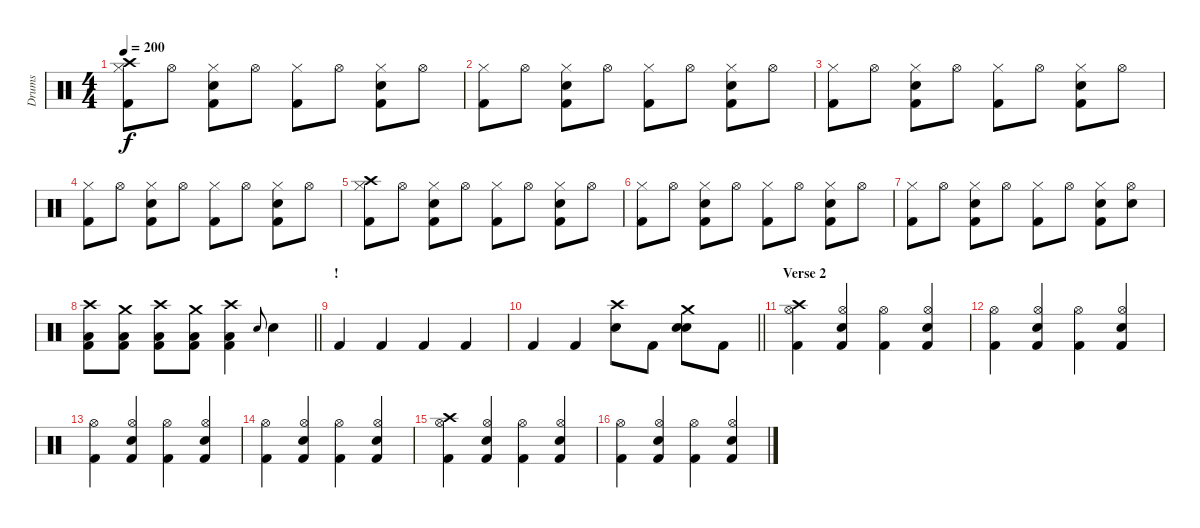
\track ("Drums" "Drums") {instrument percussion}
\staff {score}
\articulation defaults
\ts (4 4)
\tempo 200
\clef neutral
\ks c
("Crash high (hit)" "Hi-Hat (closed)" "Kick (hit) 2").8{dy f} "Hi-Hat (open)".8 ("Hi-Hat (closed)" "Snare (hit) 2" "Kick (hit) 2").8 "Hi-Hat (open)".8 ("Hi-Hat (closed)" "Kick (hit) 2").8 "Hi-Hat (open)".8 ("Hi-Hat (closed)" "Snare (hit) 2" "Kick (hit) 2").8 "Hi-Hat (open)".8 |
("Hi-Hat (closed)" "Kick (hit) 2").8 "Hi-Hat (open)".8 ("Hi-Hat (closed)" "Snare (hit) 2" "Kick (hit) 2").8 "Hi-Hat (open)".8 ("Hi-Hat (closed)" "Kick (hit) 2").8 "Hi-Hat (open)".8 ("Hi-Hat (closed)" "Snare (hit) 2" "Kick (hit) 2").8 "Hi-Hat (open)".8 |
("Hi-Hat (closed)" "Kick (hit) 2").8 "Hi-Hat (open)".8 ("Hi-Hat (closed)" "Snare (hit) 2" "Kick (hit) 2").8 "Hi-Hat (open)".8 ("Hi-Hat (closed)" "Kick (hit) 2").8 "Hi-Hat (open)".8 ("Hi-Hat (closed)" "Snare (hit) 2" "Kick (hit) 2").8 "Hi-Hat (open)".8 |
("Hi-Hat (closed)" "Kick (hit) 2").8 "Hi-Hat (open)".8 ("Hi-Hat (closed)" "Snare (hit) 2" "Kick (hit) 2").8 "Hi-Hat (open)".8 ("Hi-Hat (closed)" "Kick (hit) 2").8 "Hi-Hat (open)".8 ("Hi-Hat (closed)" "Snare (hit) 2" "Kick (hit) 2").8 "Hi-Hat (open)".8 |
("Crash high (hit)" "Hi-Hat (closed)" "Kick (hit) 2").8 "Hi-Hat (open)".8 ("Hi-Hat (closed)" "Snare (hit) 2" "Kick (hit) 2").8 "Hi-Hat (open)".8 ("Hi-Hat (closed)" "Kick (hit) 2").8 "Hi-Hat (open)".8 ("Hi-Hat (closed)" "Snare (hit) 2" "Kick (hit) 2").8 "Hi-Hat (open)".8 |
("Hi-Hat (closed)" "Kick (hit) 2").8 "Hi-Hat (open)".8 ("Hi-Hat (closed)" "Snare (hit) 2" "Kick (hit) 2").8 "Hi-Hat (open)".8 ("Hi-Hat (closed)" "Kick (hit) 2").8 "Hi-Hat (open)".8 ("Hi-Hat (closed)" "Snare (hit) 2" "Kick (hit) 2").8 "Hi-Hat (open)".8 |
("Hi-Hat (closed)" "Kick (hit) 2").8 "Hi-Hat (open)".8 ("Hi-Hat (closed)" "Snare (hit) 2" "Kick (hit) 2").8 "Hi-Hat (open)".8 ("Hi-Hat (closed)" "Kick (hit) 2").8 "Hi-Hat (open)".8 ("Hi-Hat (closed)" "Snare (hit) 2" "Kick (hit) 2").8 ("Hi-Hat (open)" "Snare (hit) 2").8 |
\barLineRight lightlight
("Crash high (hit)" "Low Floor Tom (hit)" "Kick (hit) 2").8 ("Crash medium (hit)" "Low Floor Tom (hit)" "Kick (hit) 2").8 ("Crash high (hit)" "Low Floor Tom (hit)" "Kick (hit) 2").8 ("Crash medium (hit)" "Low Floor Tom (hit)" "Kick (hit) 2").8 ("Crash high (hit)" "Low Floor Tom (hit)" "Kick (hit) 2").4 "Snare (hit) 2".8{gr onbeat} "Snare (hit) 2".4 |
\section ("" "!")
"Kick (hit) 2".4 "Kick (hit) 2".4 "Kick (hit) 2".4 "Kick (hit) 2".4 |
\barLineRight lightlight "Kick (hit) 2".4 "Kick (hit) 2".4
("Crash high (hit)" "Snare (hit) 2").8 "Kick (hit) 2".8 ("Crash medium (hit)" "Snare (hit)" "Snare (hit) 2").8 "Kick (hit) 2".8 |
\section ("" "Verse 2")
("Crash high (hit)" "Hi-Hat (open)" "Kick (hit) 2").4 ("Hi-Hat (open)" "Snare (hit) 2" "Kick (hit) 2").4 ("Hi-Hat (open)" "Kick (hit) 2").4 ("Hi-Hat (open)" "Snare (hit) 2" "Kick (hit) 2").4 |
("Hi-Hat (open)" "Kick (hit) 2").4 ("Hi-Hat (open)" "Snare (hit) 2" "Kick (hit) 2").4 ("Hi-Hat (open)" "Kick (hit) 2").4 ("Hi-Hat (open)" "Snare (hit) 2" "Kick (hit) 2").4 |
("Hi-Hat (open)" "Kick (hit) 2").4 ("Hi-Hat (open)" "Snare (hit) 2" "Kick (hit) 2").4 ("Hi-Hat (open)" "Kick (hit) 2").4 ("Hi-Hat (open)" "Snare (hit) 2" "Kick (hit) 2").4 |
("Hi-Hat (open)" "Kick (hit) 2").4 ("Hi-Hat (open)" "Snare (hit) 2" "Kick (hit) 2").4 ("Hi-Hat (open)" "Kick (hit) 2").4 ("Hi-Hat (open)" "Snare (hit) 2" "Kick (hit) 2").4 |
("Crash high (hit)" "Hi-Hat (open)" "Kick (hit) 2").4 ("Hi-Hat (open)" "Snare (hit) 2" "Kick (hit) 2").4 ("Hi-Hat (open)" "Kick (hit) 2").4 ("Hi-Hat (open)" "Snare (hit) 2" "Kick (hit) 2").4 |
("Hi-Hat (open)" "Kick (hit) 2").4 ("Hi-Hat (open)" "Snare (hit) 2" "Kick (hit) 2").4 ("Hi-Hat (open)" "Kick (hit) 2").4 ("Hi-Hat (open)" "Snare (hit) 2" "Kick (hit) 2").4
